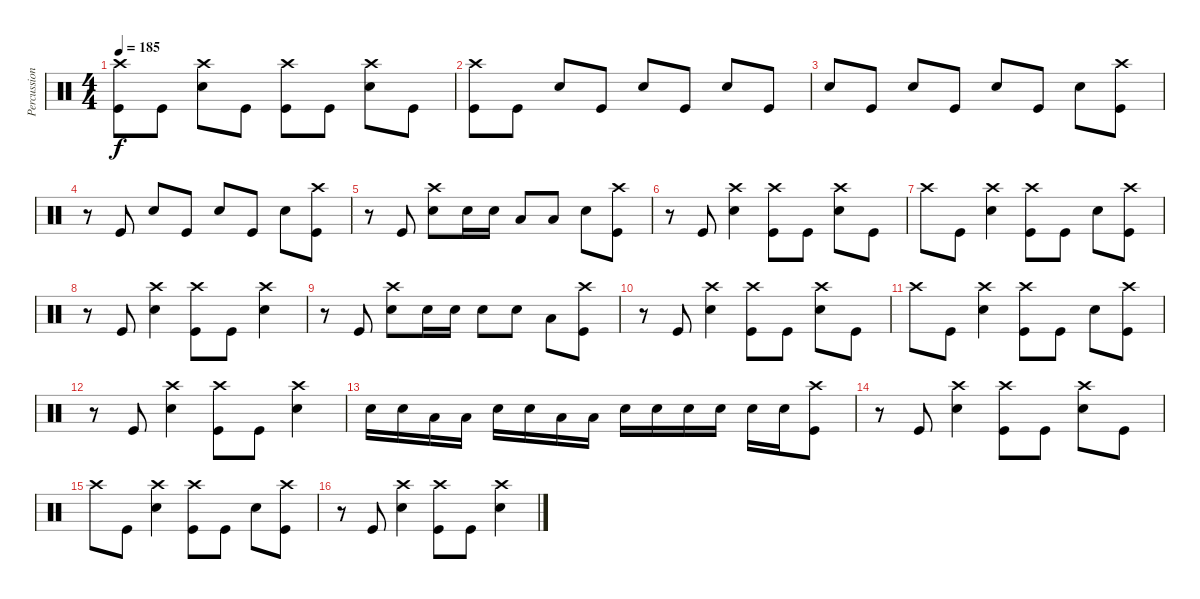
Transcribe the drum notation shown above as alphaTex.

\track ("Percussion" "Percussion") {instrument percussion}
\staff {score}
\articulation defaults
\ts (4 4)
\tempo 185
\clef neutral
\ks c
("Crash high (hit)" "Kick (hit)").8{dy f} "Kick (hit)".8 ("Crash high (hit)" "Snare (hit) 2").8 "Kick (hit)".8 ("Crash high (hit)" "Kick (hit)").8 "Kick (hit)".8 ("Crash high (hit)" "Snare (hit) 2").8 "Kick (hit)".8 |
("Crash high (hit)" "Kick (hit)").8 "Kick (hit)".8 "Snare (hit) 2".8 "Kick (hit)".8 "Snare (hit) 2".8 "Kick (hit)".8 "Snare (hit) 2".8 "Kick (hit)".8 |
"Snare (hit) 2".8 "Kick (hit)".8 "Snare (hit) 2".8 "Kick (hit)".8 "Snare (hit) 2".8 "Kick (hit)".8 "Snare (hit) 2".8 ("Crash high (hit)" "Kick (hit)").8 |
r.8 "Kick (hit)".8 "Snare (hit) 2".8 "Kick (hit)".8 "Snare (hit) 2".8 "Kick (hit)".8 "Snare (hit) 2".8 ("Crash high (hit)" "Kick (hit)").8 |
r.8 "Kick (hit)".8 ("Crash high (hit)" "Snare (hit) 2").8 "Snare (hit) 2".16 "Snare (hit) 2".16 "Low Tom (hit)".8 "Low Tom (hit)".8 "Snare (hit) 2".8 ("Crash high (hit)" "Kick (hit)").8 |
r.8 "Kick (hit)".8 ("Crash high (hit)" "Snare (hit) 2").4 ("Crash high (hit)" "Kick (hit)").8 "Kick (hit)".8 ("Crash high (hit)" "Snare (hit) 2").8 "Kick (hit)".8 |
"Crash high (hit)".8 "Kick (hit)".8 ("Crash high (hit)" "Snare (hit) 2").4 ("Crash high (hit)" "Kick (hit)").8 "Kick (hit)".8 "Snare (hit) 2".8 ("Crash high (hit)" "Kick (hit)").8 |
r.8 "Kick (hit)".8 ("Crash high (hit)" "Snare (hit) 2").4 ("Crash high (hit)" "Kick (hit)").8 "Kick (hit)".8 ("Crash high (hit)" "Snare (hit) 2").4 |
r.8 "Kick (hit)".8 ("Crash high (hit)" "Snare (hit) 2").8 "Snare (hit) 2".16 "Snare (hit) 2".16 "Snare (hit) 2".8 "Snare (hit) 2".8 "Low Tom (hit)".8 ("Crash high (hit)" "Kick (hit)").8 |
r.8 "Kick (hit)".8 ("Crash high (hit)" "Snare (hit) 2").4 ("Crash high (hit)" "Kick (hit)").8 "Kick (hit)".8 ("Crash high (hit)" "Snare (hit) 2").8 "Kick (hit)".8 |
"Crash high (hit)".8 "Kick (hit)".8 ("Crash high (hit)" "Snare (hit) 2").4 ("Crash high (hit)" "Kick (hit)").8 "Kick (hit)".8 "Snare (hit) 2".8 ("Crash high (hit)" "Kick (hit)").8 |
r.8 "Kick (hit)".8 ("Crash high (hit)" "Snare (hit) 2").4 ("Crash high (hit)" "Kick (hit)").8 "Kick (hit)".8 ("Crash high (hit)" "Snare (hit) 2").4 |
"Snare (hit) 2".16 "Snare (hit) 2".16 "Low Tom (hit)".16 "Low Tom (hit)".16 "Snare (hit) 2".16 "Snare (hit) 2".16 "Low Tom (hit)".16 "Low Tom (hit)".16 "Snare (hit) 2".16 "Snare (hit) 2".16 "Snare (hit) 2".16 "Snare (hit) 2".16 "Snare (hit) 2".16 "Snare (hit) 2".16 ("Crash high (hit)" "Kick (hit)").8 |
r.8 "Kick (hit)".8 ("Crash high (hit)" "Snare (hit) 2").4 ("Crash high (hit)" "Kick (hit)").8 "Kick (hit)".8 ("Crash high (hit)" "Snare (hit) 2").8 "Kick (hit)".8 |
"Crash high (hit)".8 "Kick (hit)".8 ("Crash high (hit)" "Snare (hit) 2").4 ("Crash high (hit)" "Kick (hit)").8 "Kick (hit)".8 "Snare (hit) 2".8 ("Crash high (hit)" "Kick (hit)").8 |
r.8 "Kick (hit)".8 ("Crash high (hit)" "Snare (hit) 2").4 ("Crash high (hit)" "Kick (hit)").8 "Kick (hit)".8 ("Crash high (hit)" "Snare (hit) 2").4
